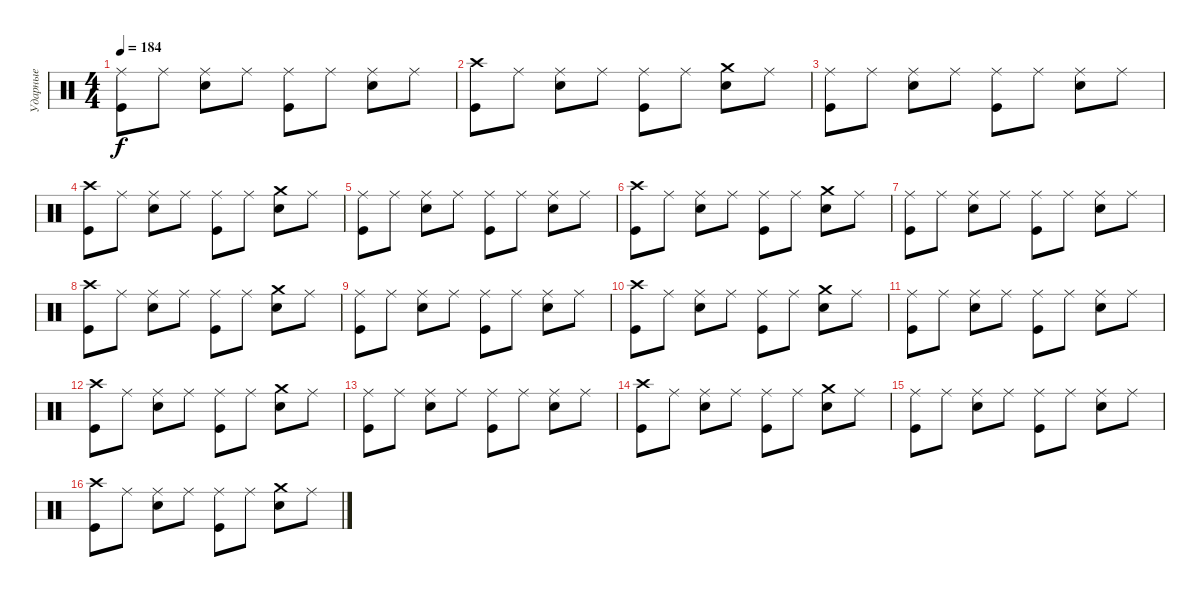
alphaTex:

\track ("Ударные" "Ударные") {instrument percussion}
\staff {score}
\articulation defaults
\ts (4 4)
\tempo 184
\clef neutral
\ks c
("Ride (middle)" "Kick (hit)").8{dy f} "Ride (middle)".8 ("Ride (middle)" "Electric Snare (hit)").8 "Ride (middle)".8 ("Ride (middle)" "Kick (hit)").8 "Ride (middle)".8 ("Ride (middle)" "Electric Snare (hit)").8 "Ride (middle)".8 |
("Crash high (hit)" "Kick (hit)").8 "Ride (middle)".8 ("Ride (middle)" "Electric Snare (hit)").8 "Ride (middle)".8 ("Ride (middle)" "Kick (hit)").8 "Ride (middle)".8 ("Crash medium (hit)" "Electric Snare (hit)").8 "Ride (middle)".8 |
("Ride (middle)" "Kick (hit)").8 "Ride (middle)".8 ("Ride (middle)" "Electric Snare (hit)").8 "Ride (middle)".8 ("Ride (middle)" "Kick (hit)").8 "Ride (middle)".8 ("Ride (middle)" "Electric Snare (hit)").8 "Ride (middle)".8 |
("Crash high (hit)" "Kick (hit)").8 "Ride (middle)".8 ("Ride (middle)" "Electric Snare (hit)").8 "Ride (middle)".8 ("Ride (middle)" "Kick (hit)").8 "Ride (middle)".8 ("Crash medium (hit)" "Electric Snare (hit)").8 "Ride (middle)".8 |
("Ride (middle)" "Kick (hit)").8 "Ride (middle)".8 ("Ride (middle)" "Electric Snare (hit)").8 "Ride (middle)".8 ("Ride (middle)" "Kick (hit)").8 "Ride (middle)".8 ("Ride (middle)" "Electric Snare (hit)").8 "Ride (middle)".8 |
("Crash high (hit)" "Kick (hit)").8 "Ride (middle)".8 ("Ride (middle)" "Electric Snare (hit)").8 "Ride (middle)".8 ("Ride (middle)" "Kick (hit)").8 "Ride (middle)".8 ("Crash medium (hit)" "Electric Snare (hit)").8 "Ride (middle)".8 |
("Ride (middle)" "Kick (hit)").8 "Ride (middle)".8 ("Ride (middle)" "Electric Snare (hit)").8 "Ride (middle)".8 ("Ride (middle)" "Kick (hit)").8 "Ride (middle)".8 ("Ride (middle)" "Electric Snare (hit)").8 "Ride (middle)".8 |
("Crash high (hit)" "Kick (hit)").8 "Ride (middle)".8 ("Ride (middle)" "Electric Snare (hit)").8 "Ride (middle)".8 ("Ride (middle)" "Kick (hit)").8 "Ride (middle)".8 ("Crash medium (hit)" "Electric Snare (hit)").8 "Ride (middle)".8 |
("Ride (middle)" "Kick (hit)").8 "Ride (middle)".8 ("Ride (middle)" "Electric Snare (hit)").8 "Ride (middle)".8 ("Ride (middle)" "Kick (hit)").8 "Ride (middle)".8 ("Ride (middle)" "Electric Snare (hit)").8 "Ride (middle)".8 |
("Crash high (hit)" "Kick (hit)").8 "Ride (middle)".8 ("Ride (middle)" "Electric Snare (hit)").8 "Ride (middle)".8 ("Ride (middle)" "Kick (hit)").8 "Ride (middle)".8 ("Crash medium (hit)" "Electric Snare (hit)").8 "Ride (middle)".8 |
("Ride (middle)" "Kick (hit)").8 "Ride (middle)".8 ("Ride (middle)" "Electric Snare (hit)").8 "Ride (middle)".8 ("Ride (middle)" "Kick (hit)").8 "Ride (middle)".8 ("Ride (middle)" "Electric Snare (hit)").8 "Ride (middle)".8 |
("Crash high (hit)" "Kick (hit)").8 "Ride (middle)".8 ("Ride (middle)" "Electric Snare (hit)").8 "Ride (middle)".8 ("Ride (middle)" "Kick (hit)").8 "Ride (middle)".8 ("Crash medium (hit)" "Electric Snare (hit)").8 "Ride (middle)".8 |
("Ride (middle)" "Kick (hit)").8 "Ride (middle)".8 ("Ride (middle)" "Electric Snare (hit)").8 "Ride (middle)".8 ("Ride (middle)" "Kick (hit)").8 "Ride (middle)".8 ("Ride (middle)" "Electric Snare (hit)").8 "Ride (middle)".8 |
("Crash high (hit)" "Kick (hit)").8 "Ride (middle)".8 ("Ride (middle)" "Electric Snare (hit)").8 "Ride (middle)".8 ("Ride (middle)" "Kick (hit)").8 "Ride (middle)".8 ("Crash medium (hit)" "Electric Snare (hit)").8 "Ride (middle)".8 |
("Ride (middle)" "Kick (hit)").8 "Ride (middle)".8 ("Ride (middle)" "Electric Snare (hit)").8 "Ride (middle)".8 ("Ride (middle)" "Kick (hit)").8 "Ride (middle)".8 ("Ride (middle)" "Electric Snare (hit)").8 "Ride (middle)".8 |
("Crash high (hit)" "Kick (hit)").8 "Ride (middle)".8 ("Ride (middle)" "Electric Snare (hit)").8 "Ride (middle)".8 ("Ride (middle)" "Kick (hit)").8 "Ride (middle)".8 ("Crash medium (hit)" "Electric Snare (hit)").8 "Ride (middle)".8
